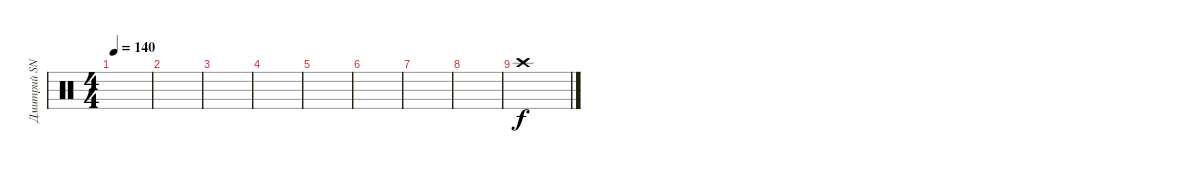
\track ("Дмитрий SNAKE Хакимов" "Дмитрий SN") {instrument percussion}
\staff {score}
\articulation defaults
\ts (4 4)
\tempo 140
\clef neutral
\ks c
|
|
|
|
|
|
|
|
"Crash high (hit)".1
